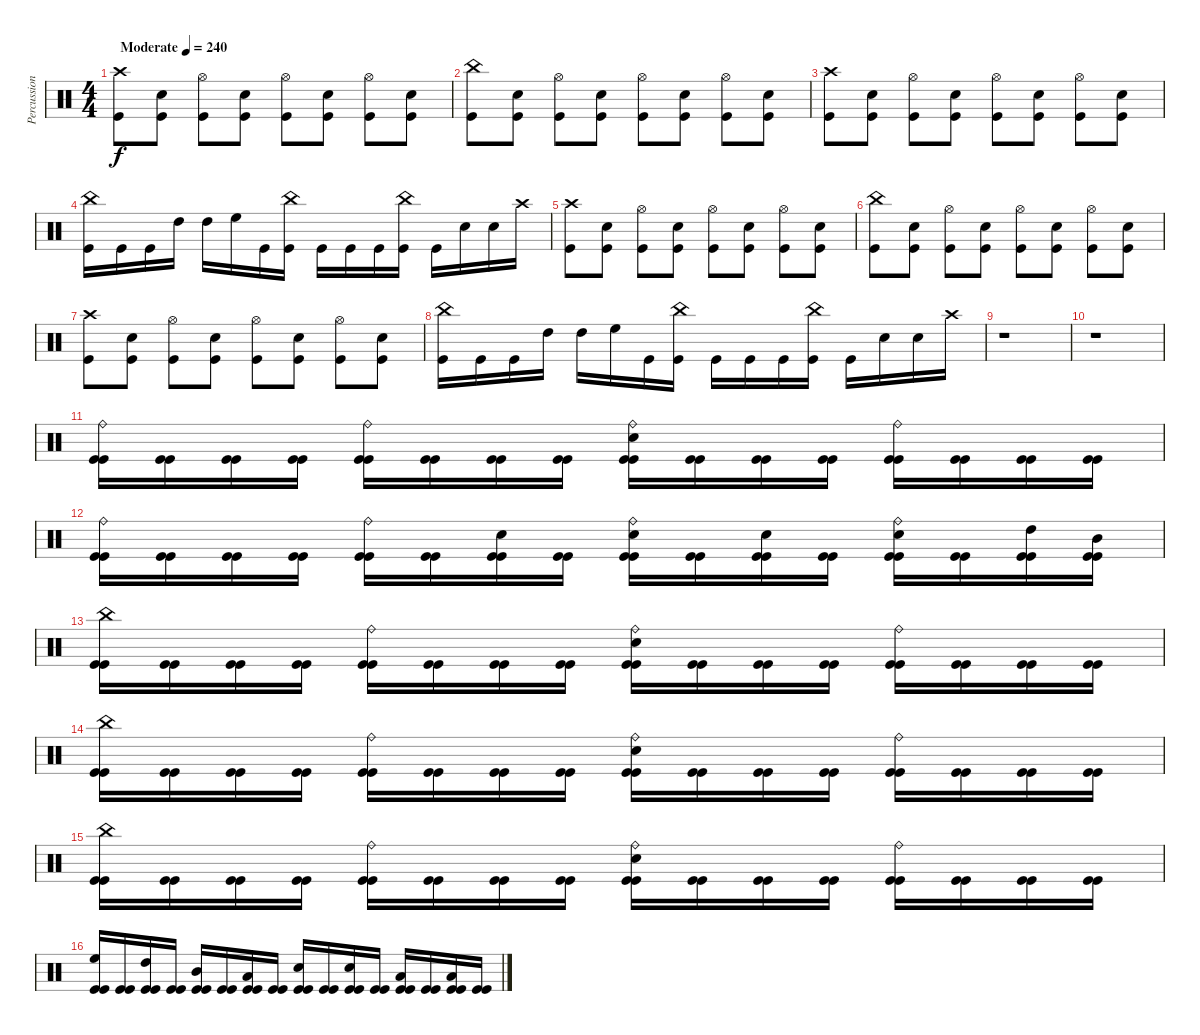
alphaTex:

\track ("Percussion" "Percussion") {instrument percussion}
\staff {score}
\articulation defaults
\ts (4 4)
\tempo (240 "Moderate")
\clef neutral
\ks c
("Crash high (hit)" "Kick (hit)").8{dy f} ("Snare (hit) 2" "Kick (hit)").8 ("Hi-Hat (open)" "Kick (hit)").8 ("Snare (hit) 2" "Kick (hit)").8 ("Hi-Hat (open)" "Kick (hit)").8 ("Snare (hit) 2" "Kick (hit)").8 ("Hi-Hat (open)" "Kick (hit)").8 ("Snare (hit) 2" "Kick (hit)").8 |
("China (hit)" "Kick (hit)").8 ("Snare (hit) 2" "Kick (hit)").8 ("Hi-Hat (open)" "Kick (hit)").8 ("Snare (hit) 2" "Kick (hit)").8 ("Hi-Hat (open)" "Kick (hit)").8 ("Snare (hit) 2" "Kick (hit)").8 ("Hi-Hat (open)" "Kick (hit)").8 ("Snare (hit) 2" "Kick (hit)").8 |
("Crash high (hit)" "Kick (hit)").8 ("Snare (hit) 2" "Kick (hit)").8 ("Hi-Hat (open)" "Kick (hit)").8 ("Snare (hit) 2" "Kick (hit)").8 ("Hi-Hat (open)" "Kick (hit)").8 ("Snare (hit) 2" "Kick (hit)").8 ("Hi-Hat (open)" "Kick (hit)").8 ("Snare (hit) 2" "Kick (hit)").8 |
("China (hit)" "Kick (hit)").16 "Kick (hit)".16 "Kick (hit)".16 "High Tom (hit)".16 "High Tom (hit)".16 "High Floor Tom (hit)".16 "Kick (hit)".16 ("China (hit)" "Kick (hit)").16 "Kick (hit)".16 "Kick (hit)".16 "Kick (hit)".16 ("China (hit)" "Kick (hit)").16 "Kick (hit)".16 "Snare (hit) 2".16 "Snare (hit) 2".16 "Crash high (hit)".16 |
("Crash high (hit)" "Kick (hit)").8 ("Snare (hit) 2" "Kick (hit)").8 ("Hi-Hat (open)" "Kick (hit)").8 ("Snare (hit) 2" "Kick (hit)").8 ("Hi-Hat (open)" "Kick (hit)").8 ("Snare (hit) 2" "Kick (hit)").8 ("Hi-Hat (open)" "Kick (hit)").8 ("Snare (hit) 2" "Kick (hit)").8 |
("China (hit)" "Kick (hit)").8 ("Snare (hit) 2" "Kick (hit)").8 ("Hi-Hat (open)" "Kick (hit)").8 ("Snare (hit) 2" "Kick (hit)").8 ("Hi-Hat (open)" "Kick (hit)").8 ("Snare (hit) 2" "Kick (hit)").8 ("Hi-Hat (open)" "Kick (hit)").8 ("Snare (hit) 2" "Kick (hit)").8 |
("Crash high (hit)" "Kick (hit)").8 ("Snare (hit) 2" "Kick (hit)").8 ("Hi-Hat (open)" "Kick (hit)").8 ("Snare (hit) 2" "Kick (hit)").8 ("Hi-Hat (open)" "Kick (hit)").8 ("Snare (hit) 2" "Kick (hit)").8 ("Hi-Hat (open)" "Kick (hit)").8 ("Snare (hit) 2" "Kick (hit)").8 |
("China (hit)" "Kick (hit)").16 "Kick (hit)".16 "Kick (hit)".16 "High Tom (hit)".16 "High Tom (hit)".16 "High Floor Tom (hit)".16 "Kick (hit)".16 ("China (hit)" "Kick (hit)").16 "Kick (hit)".16 "Kick (hit)".16 "Kick (hit)".16 ("China (hit)" "Kick (hit)").16 "Kick (hit)".16 "Snare (hit) 2".16 "Snare (hit) 2".16 "Crash high (hit)".16 |
r.1 |
r.1 |
("Ride (bell)" "Kick (hit)" "Kick (hit)").16 ("Kick (hit)" "Kick (hit)").16 ("Kick (hit)" "Kick (hit)").16 ("Kick (hit)" "Kick (hit)").16 ("Ride (bell)" "Kick (hit)" "Kick (hit)").16 ("Kick (hit)" "Kick (hit)").16 ("Kick (hit)" "Kick (hit)").16 ("Kick (hit)" "Kick (hit)").16 ("Ride (bell)" "Snare (hit) 2" "Kick (hit)" "Kick (hit)").16 ("Kick (hit)" "Kick (hit)").16 ("Kick (hit)" "Kick (hit)").16 ("Kick (hit)" "Kick (hit)").16 ("Ride (bell)" "Kick (hit)" "Kick (hit)").16 ("Kick (hit)" "Kick (hit)").16 ("Kick (hit)" "Kick (hit)").16 ("Kick (hit)" "Kick (hit)").16 |
("Ride (bell)" "Kick (hit)" "Kick (hit)").16 ("Kick (hit)" "Kick (hit)").16 ("Kick (hit)" "Kick (hit)").16 ("Kick (hit)" "Kick (hit)").16 ("Ride (bell)" "Kick (hit)" "Kick (hit)").16 ("Kick (hit)" "Kick (hit)").16 ("Snare (hit) 2" "Kick (hit)" "Kick (hit)").16 ("Kick (hit)" "Kick (hit)").16 ("Ride (bell)" "Snare (hit) 2" "Kick (hit)" "Kick (hit)").16 ("Kick (hit)" "Kick (hit)").16 ("Snare (hit) 2" "Kick (hit)" "Kick (hit)").16 ("Kick (hit)" "Kick (hit)").16 ("Ride (bell)" "Snare (hit) 2" "Kick (hit)" "Kick (hit)").16 ("Kick (hit)" "Kick (hit)").16 ("High Tom (hit)" "Kick (hit)" "Kick (hit)").16 ("Mid Tom (hit)" "Kick (hit)" "Kick (hit)").16 |
("China (hit)" "Kick (hit)" "Kick (hit)").16 ("Kick (hit)" "Kick (hit)").16 ("Kick (hit)" "Kick (hit)").16 ("Kick (hit)" "Kick (hit)").16 ("Ride (bell)" "Kick (hit)" "Kick (hit)").16 ("Kick (hit)" "Kick (hit)").16 ("Kick (hit)" "Kick (hit)").16 ("Kick (hit)" "Kick (hit)").16 ("Ride (bell)" "Snare (hit) 2" "Kick (hit)" "Kick (hit)").16 ("Kick (hit)" "Kick (hit)").16 ("Kick (hit)" "Kick (hit)").16 ("Kick (hit)" "Kick (hit)").16 ("Ride (bell)" "Kick (hit)" "Kick (hit)").16 ("Kick (hit)" "Kick (hit)").16 ("Kick (hit)" "Kick (hit)").16 ("Kick (hit)" "Kick (hit)").16 |
("China (hit)" "Kick (hit)" "Kick (hit)").16 ("Kick (hit)" "Kick (hit)").16 ("Kick (hit)" "Kick (hit)").16 ("Kick (hit)" "Kick (hit)").16 ("Ride (bell)" "Kick (hit)" "Kick (hit)").16 ("Kick (hit)" "Kick (hit)").16 ("Kick (hit)" "Kick (hit)").16 ("Kick (hit)" "Kick (hit)").16 ("Ride (bell)" "Snare (hit) 2" "Kick (hit)" "Kick (hit)").16 ("Kick (hit)" "Kick (hit)").16 ("Kick (hit)" "Kick (hit)").16 ("Kick (hit)" "Kick (hit)").16 ("Ride (bell)" "Kick (hit)" "Kick (hit)").16 ("Kick (hit)" "Kick (hit)").16 ("Kick (hit)" "Kick (hit)").16 ("Kick (hit)" "Kick (hit)").16 |
("China (hit)" "Kick (hit)" "Kick (hit)").16 ("Kick (hit)" "Kick (hit)").16 ("Kick (hit)" "Kick (hit)").16 ("Kick (hit)" "Kick (hit)").16 ("Ride (bell)" "Kick (hit)" "Kick (hit)").16 ("Kick (hit)" "Kick (hit)").16 ("Kick (hit)" "Kick (hit)").16 ("Kick (hit)" "Kick (hit)").16 ("Ride (bell)" "Snare (hit) 2" "Kick (hit)" "Kick (hit)").16 ("Kick (hit)" "Kick (hit)").16 ("Kick (hit)" "Kick (hit)").16 ("Kick (hit)" "Kick (hit)").16 ("Ride (bell)" "Kick (hit)" "Kick (hit)").16 ("Kick (hit)" "Kick (hit)").16 ("Kick (hit)" "Kick (hit)").16 ("Kick (hit)" "Kick (hit)").16 |
("High Floor Tom (hit)" "Kick (hit)" "Kick (hit)").16 ("Kick (hit)" "Kick (hit)").16 ("High Tom (hit)" "Kick (hit)" "Kick (hit)").16 ("Kick (hit)" "Kick (hit)").16 ("Mid Tom (hit)" "Kick (hit)" "Kick (hit)").16 ("Kick (hit)" "Kick (hit)").16 ("Low Tom (hit)" "Kick (hit)" "Kick (hit)").16 ("Kick (hit)" "Kick (hit)").16 ("Snare (hit) 2" "Kick (hit)" "Kick (hit)").16 ("Kick (hit)" "Kick (hit)").16 ("Snare (hit) 2" "Kick (hit)" "Kick (hit)").16 ("Kick (hit)" "Kick (hit)").16 ("Low Tom (hit)" "Kick (hit)" "Kick (hit)").16 ("Kick (hit)" "Kick (hit)").16 ("Low Floor Tom (hit)" "Kick (hit)" "Kick (hit)").16 ("Kick (hit)" "Kick (hit)").16
